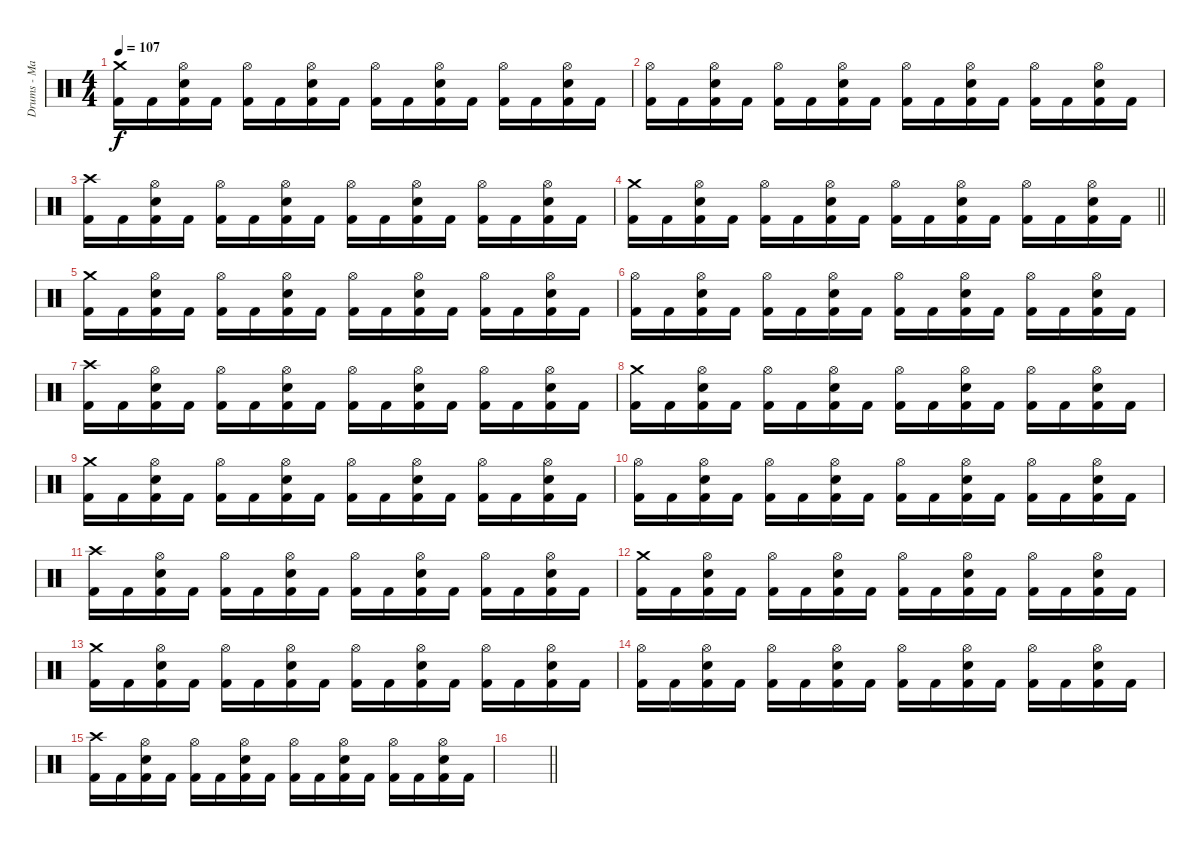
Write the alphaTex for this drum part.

\track ("Drums - Matt Thompson" "Drums - Ma") {instrument percussion}
\staff {score}
\articulation defaults
\ts (4 4)
\tempo 107
\clef neutral
\ks c
("Crash medium (hit)" "Kick (hit) 2").16{dy f} "Kick (hit) 2".16 ("Hi-Hat (open)" "Snare (hit) 2" "Kick (hit) 2").16 "Kick (hit) 2".16 ("Hi-Hat (open)" "Kick (hit) 2").16 "Kick (hit) 2".16 ("Hi-Hat (open)" "Snare (hit) 2" "Kick (hit) 2").16 "Kick (hit) 2".16 ("Hi-Hat (open)" "Kick (hit) 2").16 "Kick (hit) 2".16 ("Hi-Hat (open)" "Snare (hit) 2" "Kick (hit) 2").16 "Kick (hit) 2".16 ("Hi-Hat (open)" "Kick (hit) 2").16 "Kick (hit) 2".16 ("Hi-Hat (open)" "Snare (hit) 2" "Kick (hit) 2").16 "Kick (hit) 2".16 |
("Hi-Hat (open)" "Kick (hit) 2").16 "Kick (hit) 2".16 ("Hi-Hat (open)" "Snare (hit) 2" "Kick (hit) 2").16 "Kick (hit) 2".16 ("Hi-Hat (open)" "Kick (hit) 2").16 "Kick (hit) 2".16 ("Hi-Hat (open)" "Snare (hit) 2" "Kick (hit) 2").16 "Kick (hit) 2".16 ("Hi-Hat (open)" "Kick (hit) 2").16 "Kick (hit) 2".16 ("Hi-Hat (open)" "Snare (hit) 2" "Kick (hit) 2").16 "Kick (hit) 2".16 ("Hi-Hat (open)" "Kick (hit) 2").16 "Kick (hit) 2".16 ("Hi-Hat (open)" "Snare (hit) 2" "Kick (hit) 2").16 "Kick (hit) 2".16 |
("Crash high (hit)" "Kick (hit) 2").16 "Kick (hit) 2".16 ("Hi-Hat (open)" "Snare (hit) 2" "Kick (hit) 2").16 "Kick (hit) 2".16 ("Hi-Hat (open)" "Kick (hit) 2").16 "Kick (hit) 2".16 ("Hi-Hat (open)" "Snare (hit) 2" "Kick (hit) 2").16 "Kick (hit) 2".16 ("Hi-Hat (open)" "Kick (hit) 2").16 "Kick (hit) 2".16 ("Hi-Hat (open)" "Snare (hit) 2" "Kick (hit) 2").16 "Kick (hit) 2".16 ("Hi-Hat (open)" "Kick (hit) 2").16 "Kick (hit) 2".16 ("Hi-Hat (open)" "Snare (hit) 2" "Kick (hit) 2").16 "Kick (hit) 2".16 |
\barLineRight lightlight
("Crash medium (hit)" "Kick (hit) 2").16 "Kick (hit) 2".16 ("Hi-Hat (open)" "Snare (hit) 2" "Kick (hit) 2").16 "Kick (hit) 2".16 ("Hi-Hat (open)" "Kick (hit) 2").16 "Kick (hit) 2".16 ("Hi-Hat (open)" "Snare (hit) 2" "Kick (hit) 2").16 "Kick (hit) 2".16 ("Hi-Hat (open)" "Kick (hit) 2").16 "Kick (hit) 2".16 ("Hi-Hat (open)" "Snare (hit) 2" "Kick (hit) 2").16 "Kick (hit) 2".16 ("Hi-Hat (open)" "Kick (hit) 2").16 "Kick (hit) 2".16 ("Hi-Hat (open)" "Snare (hit) 2" "Kick (hit) 2").16 "Kick (hit) 2".16 |
("Crash medium (hit)" "Kick (hit) 2").16 "Kick (hit) 2".16 ("Hi-Hat (open)" "Snare (hit) 2" "Kick (hit) 2").16 "Kick (hit) 2".16 ("Hi-Hat (open)" "Kick (hit) 2").16 "Kick (hit) 2".16 ("Hi-Hat (open)" "Snare (hit) 2" "Kick (hit) 2").16 "Kick (hit) 2".16 ("Hi-Hat (open)" "Kick (hit) 2").16 "Kick (hit) 2".16 ("Hi-Hat (open)" "Snare (hit) 2" "Kick (hit) 2").16 "Kick (hit) 2".16 ("Hi-Hat (open)" "Kick (hit) 2").16 "Kick (hit) 2".16 ("Hi-Hat (open)" "Snare (hit) 2" "Kick (hit) 2").16 "Kick (hit) 2".16 |
("Hi-Hat (open)" "Kick (hit) 2").16 "Kick (hit) 2".16 ("Hi-Hat (open)" "Snare (hit) 2" "Kick (hit) 2").16 "Kick (hit) 2".16 ("Hi-Hat (open)" "Kick (hit) 2").16 "Kick (hit) 2".16 ("Hi-Hat (open)" "Snare (hit) 2" "Kick (hit) 2").16 "Kick (hit) 2".16 ("Hi-Hat (open)" "Kick (hit) 2").16 "Kick (hit) 2".16 ("Hi-Hat (open)" "Snare (hit) 2" "Kick (hit) 2").16 "Kick (hit) 2".16 ("Hi-Hat (open)" "Kick (hit) 2").16 "Kick (hit) 2".16 ("Hi-Hat (open)" "Snare (hit) 2" "Kick (hit) 2").16 "Kick (hit) 2".16 |
("Crash high (hit)" "Kick (hit) 2").16 "Kick (hit) 2".16 ("Hi-Hat (open)" "Snare (hit) 2" "Kick (hit) 2").16 "Kick (hit) 2".16 ("Hi-Hat (open)" "Kick (hit) 2").16 "Kick (hit) 2".16 ("Hi-Hat (open)" "Snare (hit) 2" "Kick (hit) 2").16 "Kick (hit) 2".16 ("Hi-Hat (open)" "Kick (hit) 2").16 "Kick (hit) 2".16 ("Hi-Hat (open)" "Snare (hit) 2" "Kick (hit) 2").16 "Kick (hit) 2".16 ("Hi-Hat (open)" "Kick (hit) 2").16 "Kick (hit) 2".16 ("Hi-Hat (open)" "Snare (hit) 2" "Kick (hit) 2").16 "Kick (hit) 2".16 |
("Crash medium (hit)" "Kick (hit) 2").16 "Kick (hit) 2".16 ("Hi-Hat (open)" "Snare (hit) 2" "Kick (hit) 2").16 "Kick (hit) 2".16 ("Hi-Hat (open)" "Kick (hit) 2").16 "Kick (hit) 2".16 ("Hi-Hat (open)" "Snare (hit) 2" "Kick (hit) 2").16 "Kick (hit) 2".16 ("Hi-Hat (open)" "Kick (hit) 2").16 "Kick (hit) 2".16 ("Hi-Hat (open)" "Snare (hit) 2" "Kick (hit) 2").16 "Kick (hit) 2".16 ("Hi-Hat (open)" "Kick (hit) 2").16 "Kick (hit) 2".16 ("Hi-Hat (open)" "Snare (hit) 2" "Kick (hit) 2").16 "Kick (hit) 2".16 |
("Crash medium (hit)" "Kick (hit) 2").16 "Kick (hit) 2".16 ("Hi-Hat (open)" "Snare (hit) 2" "Kick (hit) 2").16 "Kick (hit) 2".16 ("Hi-Hat (open)" "Kick (hit) 2").16 "Kick (hit) 2".16 ("Hi-Hat (open)" "Snare (hit) 2" "Kick (hit) 2").16 "Kick (hit) 2".16 ("Hi-Hat (open)" "Kick (hit) 2").16 "Kick (hit) 2".16 ("Hi-Hat (open)" "Snare (hit) 2" "Kick (hit) 2").16 "Kick (hit) 2".16 ("Hi-Hat (open)" "Kick (hit) 2").16 "Kick (hit) 2".16 ("Hi-Hat (open)" "Snare (hit) 2" "Kick (hit) 2").16 "Kick (hit) 2".16 |
("Hi-Hat (open)" "Kick (hit) 2").16 "Kick (hit) 2".16 ("Hi-Hat (open)" "Snare (hit) 2" "Kick (hit) 2").16 "Kick (hit) 2".16 ("Hi-Hat (open)" "Kick (hit) 2").16 "Kick (hit) 2".16 ("Hi-Hat (open)" "Snare (hit) 2" "Kick (hit) 2").16 "Kick (hit) 2".16 ("Hi-Hat (open)" "Kick (hit) 2").16 "Kick (hit) 2".16 ("Hi-Hat (open)" "Snare (hit) 2" "Kick (hit) 2").16 "Kick (hit) 2".16 ("Hi-Hat (open)" "Kick (hit) 2").16 "Kick (hit) 2".16 ("Hi-Hat (open)" "Snare (hit) 2" "Kick (hit) 2").16 "Kick (hit) 2".16 |
("Crash high (hit)" "Kick (hit) 2").16 "Kick (hit) 2".16 ("Hi-Hat (open)" "Snare (hit) 2" "Kick (hit) 2").16 "Kick (hit) 2".16 ("Hi-Hat (open)" "Kick (hit) 2").16 "Kick (hit) 2".16 ("Hi-Hat (open)" "Snare (hit) 2" "Kick (hit) 2").16 "Kick (hit) 2".16 ("Hi-Hat (open)" "Kick (hit) 2").16 "Kick (hit) 2".16 ("Hi-Hat (open)" "Snare (hit) 2" "Kick (hit) 2").16 "Kick (hit) 2".16 ("Hi-Hat (open)" "Kick (hit) 2").16 "Kick (hit) 2".16 ("Hi-Hat (open)" "Snare (hit) 2" "Kick (hit) 2").16 "Kick (hit) 2".16 |
("Crash medium (hit)" "Kick (hit) 2").16 "Kick (hit) 2".16 ("Hi-Hat (open)" "Snare (hit) 2" "Kick (hit) 2").16 "Kick (hit) 2".16 ("Hi-Hat (open)" "Kick (hit) 2").16 "Kick (hit) 2".16 ("Hi-Hat (open)" "Snare (hit) 2" "Kick (hit) 2").16 "Kick (hit) 2".16 ("Hi-Hat (open)" "Kick (hit) 2").16 "Kick (hit) 2".16 ("Hi-Hat (open)" "Snare (hit) 2" "Kick (hit) 2").16 "Kick (hit) 2".16 ("Hi-Hat (open)" "Kick (hit) 2").16 "Kick (hit) 2".16 ("Hi-Hat (open)" "Snare (hit) 2" "Kick (hit) 2").16 "Kick (hit) 2".16 |
("Crash medium (hit)" "Kick (hit) 2").16 "Kick (hit) 2".16 ("Hi-Hat (open)" "Snare (hit) 2" "Kick (hit) 2").16 "Kick (hit) 2".16 ("Hi-Hat (open)" "Kick (hit) 2").16 "Kick (hit) 2".16 ("Hi-Hat (open)" "Snare (hit) 2" "Kick (hit) 2").16 "Kick (hit) 2".16 ("Hi-Hat (open)" "Kick (hit) 2").16 "Kick (hit) 2".16 ("Hi-Hat (open)" "Snare (hit) 2" "Kick (hit) 2").16 "Kick (hit) 2".16 ("Hi-Hat (open)" "Kick (hit) 2").16 "Kick (hit) 2".16 ("Hi-Hat (open)" "Snare (hit) 2" "Kick (hit) 2").16 "Kick (hit) 2".16 |
("Hi-Hat (open)" "Kick (hit) 2").16 "Kick (hit) 2".16 ("Hi-Hat (open)" "Snare (hit) 2" "Kick (hit) 2").16 "Kick (hit) 2".16 ("Hi-Hat (open)" "Kick (hit) 2").16 "Kick (hit) 2".16 ("Hi-Hat (open)" "Snare (hit) 2" "Kick (hit) 2").16 "Kick (hit) 2".16 ("Hi-Hat (open)" "Kick (hit) 2").16 "Kick (hit) 2".16 ("Hi-Hat (open)" "Snare (hit) 2" "Kick (hit) 2").16 "Kick (hit) 2".16 ("Hi-Hat (open)" "Kick (hit) 2").16 "Kick (hit) 2".16 ("Hi-Hat (open)" "Snare (hit) 2" "Kick (hit) 2").16 "Kick (hit) 2".16 |
("Crash high (hit)" "Kick (hit) 2").16 "Kick (hit) 2".16 ("Hi-Hat (open)" "Snare (hit) 2" "Kick (hit) 2").16 "Kick (hit) 2".16 ("Hi-Hat (open)" "Kick (hit) 2").16 "Kick (hit) 2".16 ("Hi-Hat (open)" "Snare (hit) 2" "Kick (hit) 2").16 "Kick (hit) 2".16 ("Hi-Hat (open)" "Kick (hit) 2").16 "Kick (hit) 2".16 ("Hi-Hat (open)" "Snare (hit) 2" "Kick (hit) 2").16 "Kick (hit) 2".16 ("Hi-Hat (open)" "Kick (hit) 2").16 "Kick (hit) 2".16 ("Hi-Hat (open)" "Snare (hit) 2" "Kick (hit) 2").16 "Kick (hit) 2".16 |
\barLineRight lightlight
